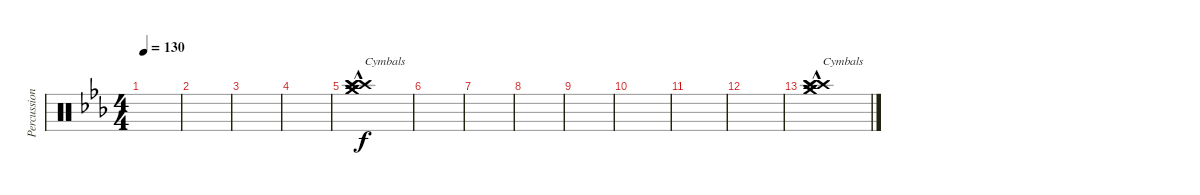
\track ("Percussion" "Percussion") {instrument percussion}
\staff {score}
\articulation defaults
\ts (4 4)
\tempo 130
\clef neutral
\ks cminor
|
|
|
|
("Crash high (hit)"{hac} "Crash high (hit)"{hac} "Crash high (hit)"{hac} "Crash medium (hit)"{hac} "Crash medium (hit)"{hac}).1{txt "Cymbals"} |
|
|
|
|
|
|
|
("Crash high (hit)"{hac} "Crash high (hit)"{hac} "Crash high (hit)"{hac} "Crash medium (hit)"{hac} "Crash medium (hit)"{hac}).1{txt "Cymbals"}
